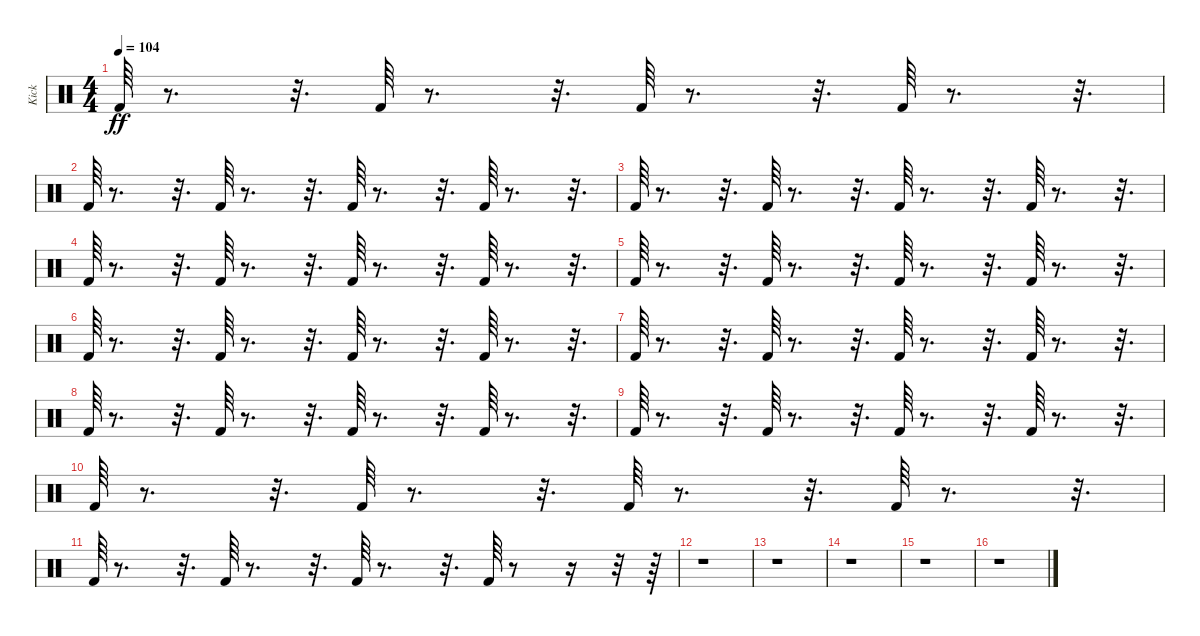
\track ("Kick" "Kick") {instrument percussion}
\staff {score}
\articulation defaults
\ts (4 4)
\tempo 104
\clef neutral
\ks c "Kick (hit) 2".64{dy ff}
r.8{d} r.32{d} "Kick (hit) 2".64 r.8{d} r.32{d} "Kick (hit) 2".64 r.8{d} r.32{d} "Kick (hit) 2".64 r.8{d} r.32{d} |
"Kick (hit) 2".64 r.8{d} r.32{d} "Kick (hit) 2".64 r.8{d} r.32{d} "Kick (hit) 2".64 r.8{d} r.32{d} "Kick (hit) 2".64 r.8{d} r.32{d} |
"Kick (hit) 2".64 r.8{d} r.32{d} "Kick (hit) 2".64 r.8{d} r.32{d} "Kick (hit) 2".64 r.8{d} r.32{d} "Kick (hit) 2".64 r.8{d} r.32{d} |
"Kick (hit) 2".64 r.8{d} r.32{d} "Kick (hit) 2".64 r.8{d} r.32{d} "Kick (hit) 2".64 r.8{d} r.32{d} "Kick (hit) 2".64 r.8{d} r.32{d} |
"Kick (hit) 2".64 r.8{d} r.32{d} "Kick (hit) 2".64 r.8{d} r.32{d} "Kick (hit) 2".64 r.8{d} r.32{d} "Kick (hit) 2".64 r.8{d} r.32{d} |
"Kick (hit) 2".64 r.8{d} r.32{d} "Kick (hit) 2".64 r.8{d} r.32{d} "Kick (hit) 2".64 r.8{d} r.32{d} "Kick (hit) 2".64 r.8{d} r.32{d} |
"Kick (hit) 2".64 r.8{d} r.32{d} "Kick (hit) 2".64 r.8{d} r.32{d} "Kick (hit) 2".64 r.8{d} r.32{d} "Kick (hit) 2".64 r.8{d} r.32{d} |
"Kick (hit) 2".64 r.8{d} r.32{d} "Kick (hit) 2".64 r.8{d} r.32{d} "Kick (hit) 2".64 r.8{d} r.32{d} "Kick (hit) 2".64 r.8{d} r.32{d} |
"Kick (hit) 2".64 r.8{d} r.32{d} "Kick (hit) 2".64 r.8{d} r.32{d} "Kick (hit) 2".64 r.8{d} r.32{d} "Kick (hit) 2".64 r.8{d} r.32{d} |
"Kick (hit) 2".64 r.8{d} r.32{d} "Kick (hit) 2".64 r.8{d} r.32{d} "Kick (hit) 2".64 r.8{d} r.32{d} "Kick (hit) 2".64 r.8{d} r.32{d} |
"Kick (hit) 2".64 r.8{d} r.32{d} "Kick (hit) 2".64 r.8{d} r.32{d} "Kick (hit) 2".64 r.8{d} r.32{d} "Kick (hit) 2".64 r.8 r.16 r.32 r.64 |
r.1 |
r.1 |
r.1 |
r.1 |
r.1
